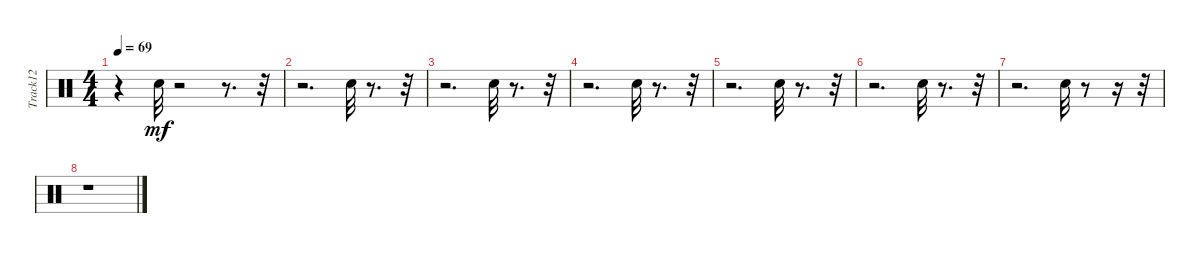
\track ("Track12" "Track12") {instrument percussion}
\staff {score}
\articulation defaults
\ts (4 4)
\tempo 69
\clef neutral
\ks c
r.4{dy mf} "Hand Clap (hit)".32 r.2 r.8{d} r.32 |
r.2{d} "Hand Clap (hit)".32 r.8{d} r.32 |
r.2{d} "Hand Clap (hit)".32 r.8{d} r.32 |
r.2{d} "Hand Clap (hit)".32 r.8{d} r.32 |
r.2{d} "Hand Clap (hit)".32 r.8{d} r.32 |
r.2{d} "Hand Clap (hit)".32 r.8{d} r.32 |
r.2{d} "Hand Clap (hit)".32 r.8 r.16 r.32 |
r.1
